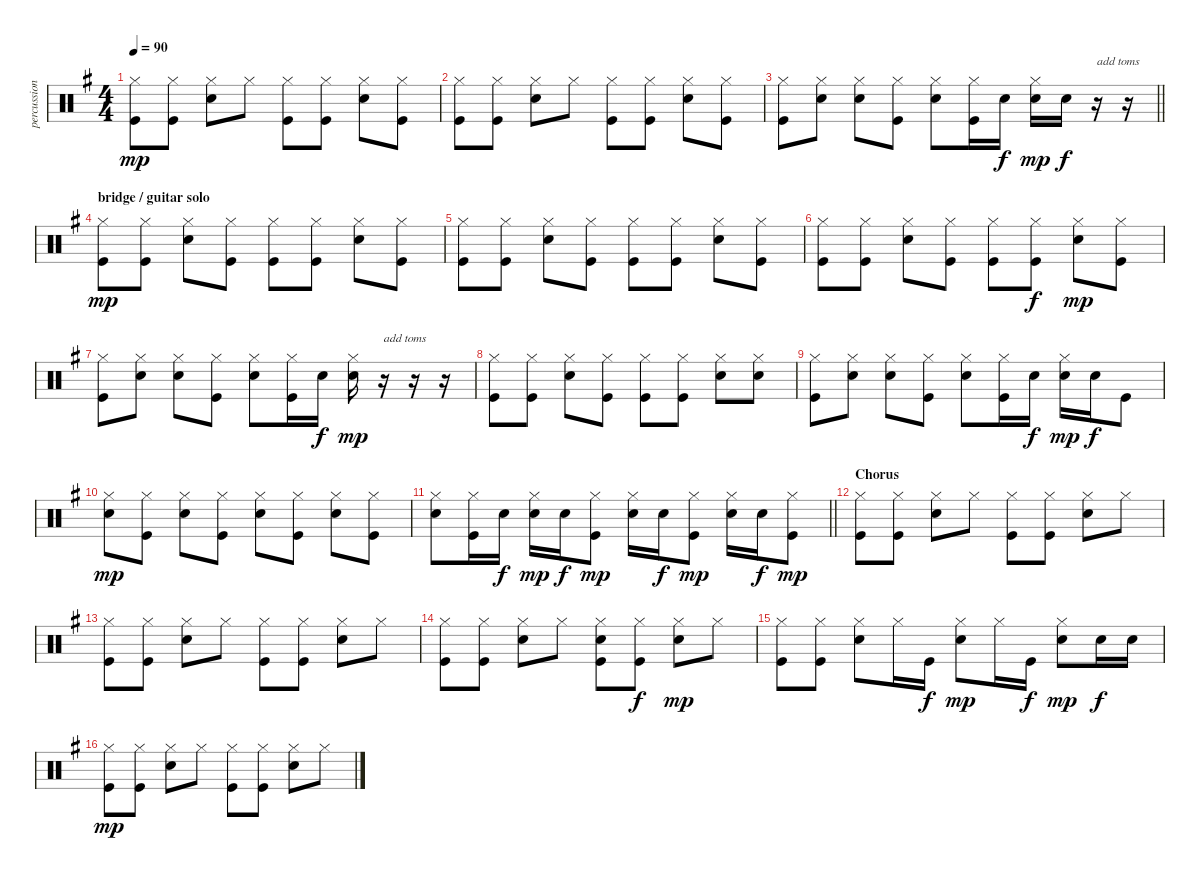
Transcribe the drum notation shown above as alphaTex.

\track ("percussion" "percussion") {instrument percussion}
\staff {score}
\articulation defaults
\ts (4 4)
\tempo 90
\clef neutral
\ks g
("Hi-Hat (closed)" "Kick (hit)").8{dy mp} ("Hi-Hat (closed)" "Kick (hit)").8 ("Electric Snare (hit)" "Hi-Hat (closed)").8 "Hi-Hat (closed)".8 ("Hi-Hat (closed)" "Kick (hit)").8 ("Hi-Hat (closed)" "Kick (hit)").8 ("Electric Snare (hit)" "Hi-Hat (closed)").8 ("Hi-Hat (closed)" "Kick (hit)").8 |
("Hi-Hat (closed)" "Kick (hit)").8 ("Hi-Hat (closed)" "Kick (hit)").8 ("Electric Snare (hit)" "Hi-Hat (closed)").8 "Hi-Hat (closed)".8 ("Hi-Hat (closed)" "Kick (hit)").8 ("Hi-Hat (closed)" "Kick (hit)").8 ("Electric Snare (hit)" "Hi-Hat (closed)").8 ("Hi-Hat (closed)" "Kick (hit)").8 |
\barLineRight lightlight
("Hi-Hat (closed)" "Kick (hit)").8 ("Electric Snare (hit)" "Hi-Hat (closed)").8 ("Electric Snare (hit)" "Hi-Hat (closed)").8 ("Hi-Hat (closed)" "Kick (hit)").8 ("Electric Snare (hit)" "Hi-Hat (closed)").8 ("Hi-Hat (closed)" "Kick (hit)").16 "Electric Snare (hit)".16{dy f} ("Electric Snare (hit)" "Hi-Hat (closed)").16{dy mp} "Electric Snare (hit)".16{dy f} r.16{txt "add toms"} r.16 |
\section ("" "bridge / guitar solo")
("Hi-Hat (closed)" "Kick (hit)").8{dy mp} ("Hi-Hat (closed)" "Kick (hit)").8 ("Electric Snare (hit)" "Hi-Hat (closed)").8 ("Hi-Hat (closed)" "Kick (hit)").8 ("Hi-Hat (closed)" "Kick (hit)").8 ("Hi-Hat (closed)" "Kick (hit)").8 ("Electric Snare (hit)" "Hi-Hat (closed)").8 ("Hi-Hat (closed)" "Kick (hit)").8 |
("Hi-Hat (closed)" "Kick (hit)").8 ("Hi-Hat (closed)" "Kick (hit)").8 ("Electric Snare (hit)" "Hi-Hat (closed)").8 ("Hi-Hat (closed)" "Kick (hit)").8 ("Hi-Hat (closed)" "Kick (hit)").8 ("Hi-Hat (closed)" "Kick (hit)").8 ("Electric Snare (hit)" "Hi-Hat (closed)").8 ("Hi-Hat (closed)" "Kick (hit)").8 |
("Hi-Hat (closed)" "Kick (hit)").8 ("Hi-Hat (closed)" "Kick (hit)").8 ("Electric Snare (hit)" "Hi-Hat (closed)").8 ("Hi-Hat (closed)" "Kick (hit)").8 ("Hi-Hat (closed)" "Kick (hit)").8 ("Hi-Hat (closed)" "Kick (hit)").8{dy f} ("Electric Snare (hit)" "Hi-Hat (closed)").8{dy mp} ("Hi-Hat (closed)" "Kick (hit)").8 |
("Hi-Hat (closed)" "Kick (hit)").8 ("Electric Snare (hit)" "Hi-Hat (closed)").8 ("Electric Snare (hit)" "Hi-Hat (closed)").8 ("Hi-Hat (closed)" "Kick (hit)").8 ("Electric Snare (hit)" "Hi-Hat (closed)").8 ("Hi-Hat (closed)" "Kick (hit)").16 "Electric Snare (hit)".16{dy f} ("Electric Snare (hit)" "Hi-Hat (closed)").16{dy mp} r.16{txt "add toms"} r.16 r.16 |
("Hi-Hat (closed)" "Kick (hit)").8 ("Hi-Hat (closed)" "Kick (hit)").8 ("Electric Snare (hit)" "Hi-Hat (closed)").8 ("Hi-Hat (closed)" "Kick (hit)").8 ("Hi-Hat (closed)" "Kick (hit)").8 ("Hi-Hat (closed)" "Kick (hit)").8 ("Electric Snare (hit)" "Hi-Hat (closed)").8 ("Electric Snare (hit)" "Hi-Hat (closed)").8 |
("Hi-Hat (closed)" "Kick (hit)").8 ("Electric Snare (hit)" "Hi-Hat (closed)").8 ("Electric Snare (hit)" "Hi-Hat (closed)").8 ("Hi-Hat (closed)" "Kick (hit)").8 ("Electric Snare (hit)" "Hi-Hat (closed)").8 ("Hi-Hat (closed)" "Kick (hit)").16 "Electric Snare (hit)".16{dy f} ("Electric Snare (hit)" "Hi-Hat (closed)").16{dy mp} "Electric Snare (hit)".16{dy f} "Kick (hit)".8 |
("Electric Snare (hit)" "Hi-Hat (closed)").8{dy mp} ("Hi-Hat (closed)" "Kick (hit)").8 ("Electric Snare (hit)" "Hi-Hat (closed)").8 ("Hi-Hat (closed)" "Kick (hit)").8 ("Electric Snare (hit)" "Hi-Hat (closed)").8 ("Hi-Hat (closed)" "Kick (hit)").8 ("Electric Snare (hit)" "Hi-Hat (closed)").8 ("Hi-Hat (closed)" "Kick (hit)").8 |
\barLineRight lightlight
("Electric Snare (hit)" "Hi-Hat (closed)").8 ("Hi-Hat (closed)" "Kick (hit)").16 "Electric Snare (hit)".16{dy f} ("Electric Snare (hit)" "Hi-Hat (closed)").16{dy mp} "Electric Snare (hit)".16{dy f} ("Hi-Hat (closed)" "Kick (hit)").8{dy mp} ("Electric Snare (hit)" "Hi-Hat (closed)").16 "Electric Snare (hit)".16{dy f} ("Hi-Hat (closed)" "Kick (hit)").8{dy mp} ("Electric Snare (hit)" "Hi-Hat (closed)").16 "Electric Snare (hit)".16{dy f} ("Hi-Hat (closed)" "Kick (hit)").8{dy mp} |
\section ("" "Chorus")
("Hi-Hat (closed)" "Kick (hit)").8 ("Hi-Hat (closed)" "Kick (hit)").8 ("Electric Snare (hit)" "Hi-Hat (closed)").8 "Hi-Hat (closed)".8 ("Hi-Hat (closed)" "Kick (hit)").8 ("Hi-Hat (closed)" "Kick (hit)").8 ("Electric Snare (hit)" "Hi-Hat (closed)").8 "Hi-Hat (closed)".8 |
("Hi-Hat (closed)" "Kick (hit)").8 ("Hi-Hat (closed)" "Kick (hit)").8 ("Electric Snare (hit)" "Hi-Hat (closed)").8 "Hi-Hat (closed)".8 ("Hi-Hat (closed)" "Kick (hit)").8 ("Hi-Hat (closed)" "Kick (hit)").8 ("Electric Snare (hit)" "Hi-Hat (closed)").8 "Hi-Hat (closed)".8 |
("Hi-Hat (closed)" "Kick (hit)").8 ("Hi-Hat (closed)" "Kick (hit)").8 ("Electric Snare (hit)" "Hi-Hat (closed)").8 "Hi-Hat (closed)".8 ("Electric Snare (hit)" "Hi-Hat (closed)" "Kick (hit)").8 ("Hi-Hat (closed)" "Kick (hit)").8{dy f} ("Electric Snare (hit)" "Hi-Hat (closed)").8{dy mp} "Hi-Hat (closed)".8 |
("Hi-Hat (closed)" "Kick (hit)").8 ("Hi-Hat (closed)" "Kick (hit)").8 ("Electric Snare (hit)" "Hi-Hat (closed)").8 "Hi-Hat (closed)".16 "Kick (hit)".16{dy f} ("Electric Snare (hit)" "Hi-Hat (closed)").8{dy mp} "Hi-Hat (closed)".16 "Kick (hit)".16{dy f} ("Electric Snare (hit)" "Hi-Hat (closed)").8{dy mp} "Electric Snare (hit)".16{dy f} "Electric Snare (hit)".16 |
("Hi-Hat (closed)" "Kick (hit)").8{dy mp} ("Hi-Hat (closed)" "Kick (hit)").8 ("Electric Snare (hit)" "Hi-Hat (closed)").8 "Hi-Hat (closed)".8 ("Hi-Hat (closed)" "Kick (hit)").8 ("Hi-Hat (closed)" "Kick (hit)").8 ("Electric Snare (hit)" "Hi-Hat (closed)").8 "Hi-Hat (closed)".8
